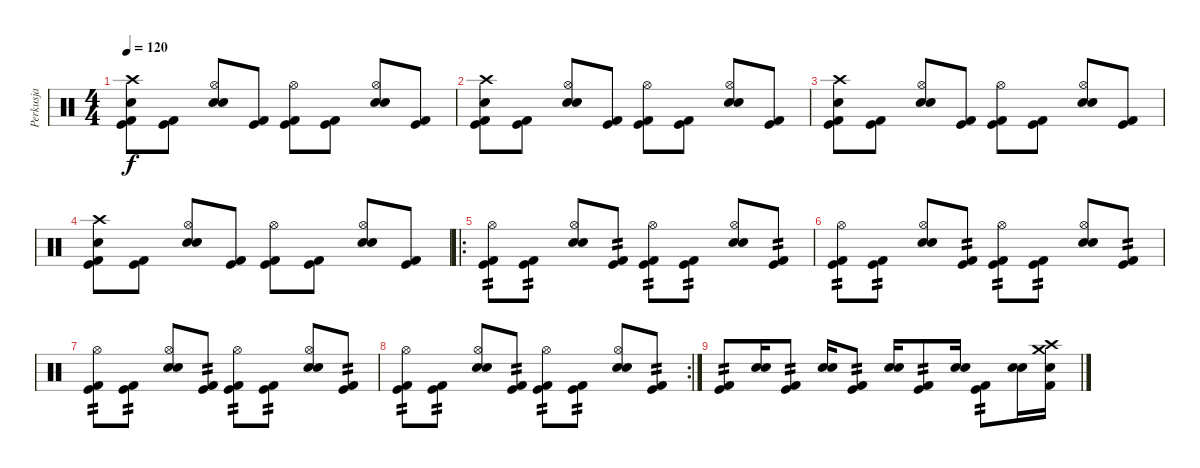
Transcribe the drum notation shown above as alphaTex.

\track ("Perkusja" "Perkusja") {instrument percussion}
\staff {score}
\articulation defaults
\ts (4 4)
\tempo 120
\clef neutral
\ks c
("Crash high (hit)" "Snare (hit) 2" "Kick (hit) 2" "Kick (hit)").8{dy f} ("Kick (hit) 2" "Kick (hit)").8 ("Snare (hit) 2" "Hi-Hat (open)" "Electric Snare (hit)").8 ("Kick (hit) 2" "Kick (hit)").8 ("Kick (hit) 2" "Hi-Hat (open)" "Kick (hit)").8 ("Kick (hit) 2" "Kick (hit)").8 ("Snare (hit) 2" "Hi-Hat (open)" "Electric Snare (hit)").8 ("Kick (hit) 2" "Kick (hit)").8 |
("Crash high (hit)" "Snare (hit) 2" "Kick (hit) 2" "Kick (hit)").8 ("Kick (hit) 2" "Kick (hit)").8 ("Snare (hit) 2" "Hi-Hat (open)" "Electric Snare (hit)").8 ("Kick (hit) 2" "Kick (hit)").8 ("Kick (hit) 2" "Hi-Hat (open)" "Kick (hit)").8 ("Kick (hit) 2" "Kick (hit)").8 ("Snare (hit) 2" "Hi-Hat (open)" "Electric Snare (hit)").8 ("Kick (hit) 2" "Kick (hit)").8 |
("Crash high (hit)" "Snare (hit) 2" "Kick (hit) 2" "Kick (hit)").8 ("Kick (hit) 2" "Kick (hit)").8 ("Snare (hit) 2" "Hi-Hat (open)" "Electric Snare (hit)").8 ("Kick (hit) 2" "Kick (hit)").8 ("Kick (hit) 2" "Hi-Hat (open)" "Kick (hit)").8 ("Kick (hit) 2" "Kick (hit)").8 ("Snare (hit) 2" "Hi-Hat (open)" "Electric Snare (hit)").8 ("Kick (hit) 2" "Kick (hit)").8 |
("Crash high (hit)" "Snare (hit) 2" "Kick (hit) 2" "Kick (hit)").8 ("Kick (hit) 2" "Kick (hit)").8 ("Snare (hit) 2" "Hi-Hat (open)" "Electric Snare (hit)").8 ("Kick (hit) 2" "Kick (hit)").8 ("Kick (hit) 2" "Hi-Hat (open)" "Kick (hit)").8 ("Kick (hit) 2" "Kick (hit)").8 ("Snare (hit) 2" "Hi-Hat (open)" "Electric Snare (hit)").8 ("Kick (hit) 2" "Kick (hit)").8 |
\ro
("Kick (hit) 2" "Kick (hit)" "Hi-Hat (open)").8{tp 2} ("Kick (hit) 2" "Kick (hit)").8{tp 2} ("Snare (hit) 2" "Electric Snare (hit)" "Hi-Hat (open)").8 ("Kick (hit) 2" "Kick (hit)").8{tp 2} ("Kick (hit) 2" "Kick (hit)" "Hi-Hat (open)").8{tp 2} ("Kick (hit) 2" "Kick (hit)").8{tp 2} ("Snare (hit) 2" "Electric Snare (hit)" "Hi-Hat (open)").8 ("Kick (hit) 2" "Kick (hit)").8{tp 2} |
("Kick (hit) 2" "Kick (hit)" "Hi-Hat (open)").8{tp 2} ("Kick (hit) 2" "Kick (hit)").8{tp 2} ("Snare (hit) 2" "Electric Snare (hit)" "Hi-Hat (open)").8 ("Kick (hit) 2" "Kick (hit)").8{tp 2} ("Kick (hit) 2" "Kick (hit)" "Hi-Hat (open)").8{tp 2} ("Kick (hit) 2" "Kick (hit)").8{tp 2} ("Snare (hit) 2" "Electric Snare (hit)" "Hi-Hat (open)").8 ("Kick (hit) 2" "Kick (hit)").8{tp 2} |
("Kick (hit) 2" "Kick (hit)" "Hi-Hat (open)").8{tp 2} ("Kick (hit) 2" "Kick (hit)").8{tp 2} ("Snare (hit) 2" "Electric Snare (hit)" "Hi-Hat (open)").8 ("Kick (hit) 2" "Kick (hit)").8{tp 2} ("Kick (hit) 2" "Kick (hit)" "Hi-Hat (open)").8{tp 2} ("Kick (hit) 2" "Kick (hit)").8{tp 2} ("Snare (hit) 2" "Electric Snare (hit)" "Hi-Hat (open)").8 ("Kick (hit) 2" "Kick (hit)").8{tp 2} |
\rc 2
("Kick (hit) 2" "Kick (hit)" "Hi-Hat (open)").8{tp 2} ("Kick (hit) 2" "Kick (hit)").8{tp 2} ("Snare (hit) 2" "Electric Snare (hit)" "Hi-Hat (open)").8 ("Kick (hit) 2" "Kick (hit)").8{tp 2} ("Kick (hit) 2" "Kick (hit)" "Hi-Hat (open)").8{tp 2} ("Kick (hit) 2" "Kick (hit)").8{tp 2} ("Snare (hit) 2" "Electric Snare (hit)" "Hi-Hat (open)").8 ("Kick (hit) 2" "Kick (hit)").8{tp 2} |
("Kick (hit) 2" "Kick (hit)").8{tp 2} ("Snare (hit) 2" "Electric Snare (hit)").16 ("Kick (hit) 2" "Kick (hit)").8{tp 2} ("Snare (hit) 2" "Electric Snare (hit)").16 ("Kick (hit) 2" "Kick (hit)").8{tp 2} ("Snare (hit) 2" "Electric Snare (hit)").16 ("Kick (hit) 2" "Kick (hit)").8{tp 2} ("Snare (hit) 2" "Electric Snare (hit)").16 ("Kick (hit) 2" "Kick (hit)").8{tp 2} ("Snare (hit) 2" "Electric Snare (hit)").16 ("Snare (hit) 2" "Crash high (hit)" "Crash medium (hit)" "Kick (hit) 2").16
